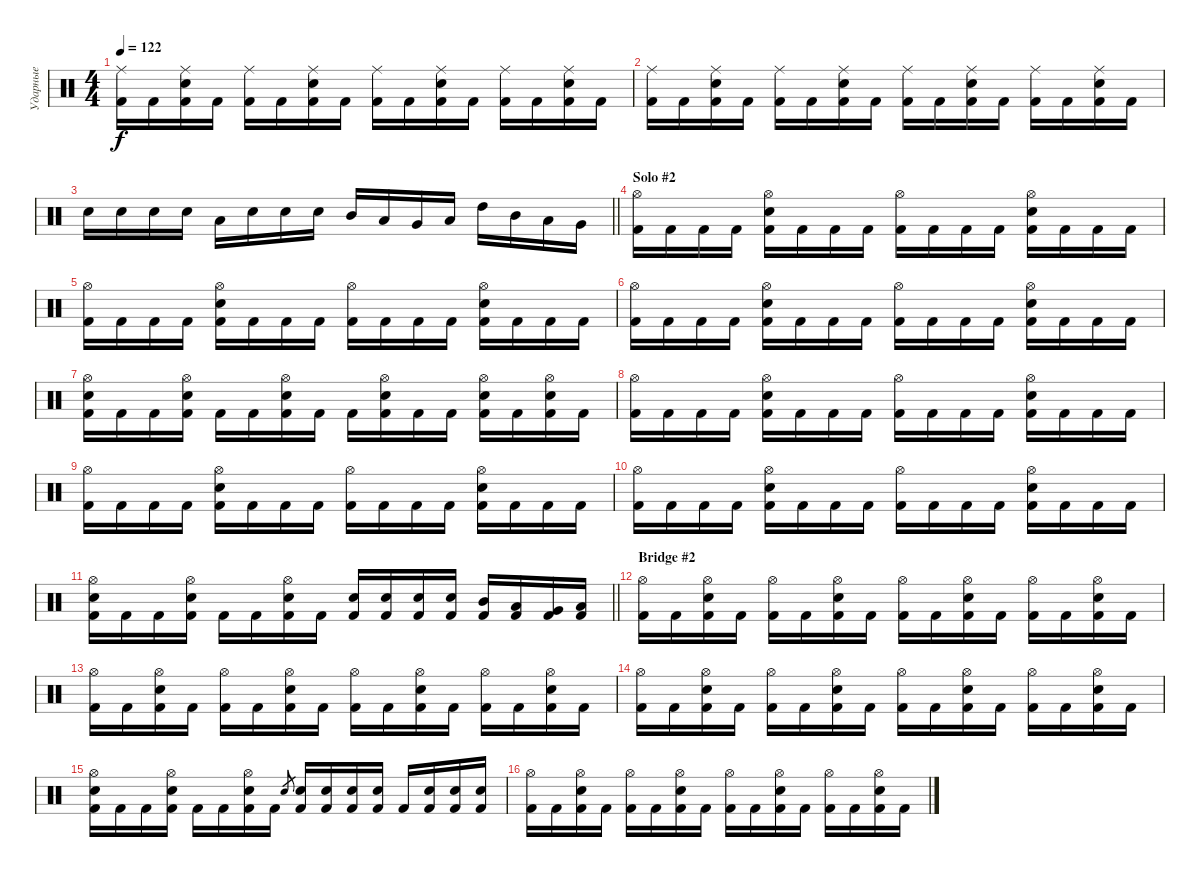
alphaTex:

\track ("Ударные" "Ударные") {instrument percussion}
\staff {score}
\articulation defaults
\ts (4 4)
\tempo 122
\clef neutral
\ks c
("Kick (hit) 2" "Ride (middle)").16{dy f} "Kick (hit) 2".16 ("Kick (hit) 2" "Electric Snare (hit)" "Ride (middle)").16 "Kick (hit) 2".16 ("Kick (hit) 2" "Ride (middle)").16 "Kick (hit) 2".16 ("Kick (hit) 2" "Electric Snare (hit)" "Ride (middle)").16 "Kick (hit) 2".16 ("Kick (hit) 2" "Ride (middle)").16 "Kick (hit) 2".16 ("Kick (hit) 2" "Electric Snare (hit)" "Ride (middle)").16 "Kick (hit) 2".16 ("Kick (hit) 2" "Ride (middle)").16 "Kick (hit) 2".16 ("Kick (hit) 2" "Electric Snare (hit)" "Ride (middle)").16 "Kick (hit) 2".16 |
("Kick (hit) 2" "Ride (middle)").16 "Kick (hit) 2".16 ("Kick (hit) 2" "Electric Snare (hit)" "Ride (middle)").16 "Kick (hit) 2".16 ("Kick (hit) 2" "Ride (middle)").16 "Kick (hit) 2".16 ("Kick (hit) 2" "Electric Snare (hit)" "Ride (middle)").16 "Kick (hit) 2".16 ("Kick (hit) 2" "Ride (middle)").16 "Kick (hit) 2".16 ("Kick (hit) 2" "Electric Snare (hit)" "Ride (middle)").16 "Kick (hit) 2".16 ("Kick (hit) 2" "Ride (middle)").16 "Kick (hit) 2".16 ("Kick (hit) 2" "Electric Snare (hit)" "Ride (middle)").16 "Kick (hit) 2".16 |
\barLineRight lightlight "Electric Snare (hit)".16 "Electric Snare (hit)".16 "Electric Snare (hit)".16 "Electric Snare (hit)".16 "Low Tom (hit)".16 "Electric Snare (hit)".16 "Electric Snare (hit)".16 "Electric Snare (hit)".16 "Mid Tom (hit)".16 "Low Tom (hit)".16 "Very Low Tom (hit)".16 "Low Floor Tom (hit)".16 "High Tom (hit)".16 "Mid Tom (hit)".16 "Low Tom (hit)".16 "Very Low Tom (hit)".16
|
\section ("" "Solo #2")
("Kick (hit) 2" "Hi-Hat (open)").16 "Kick (hit) 2".16 "Kick (hit) 2".16 "Kick (hit) 2".16 ("Kick (hit) 2" "Electric Snare (hit)" "Hi-Hat (open)").16 "Kick (hit) 2".16 "Kick (hit) 2".16 "Kick (hit) 2".16 ("Kick (hit) 2" "Hi-Hat (open)").16 "Kick (hit) 2".16 "Kick (hit) 2".16 "Kick (hit) 2".16 ("Kick (hit) 2" "Electric Snare (hit)" "Hi-Hat (open)").16 "Kick (hit) 2".16 "Kick (hit) 2".16 "Kick (hit) 2".16 |
("Kick (hit) 2" "Hi-Hat (open)").16 "Kick (hit) 2".16 "Kick (hit) 2".16 "Kick (hit) 2".16 ("Kick (hit) 2" "Electric Snare (hit)" "Hi-Hat (open)").16 "Kick (hit) 2".16 "Kick (hit) 2".16 "Kick (hit) 2".16 ("Kick (hit) 2" "Hi-Hat (open)").16 "Kick (hit) 2".16 "Kick (hit) 2".16 "Kick (hit) 2".16 ("Kick (hit) 2" "Electric Snare (hit)" "Hi-Hat (open)").16 "Kick (hit) 2".16 "Kick (hit) 2".16 "Kick (hit) 2".16 |
("Kick (hit) 2" "Hi-Hat (open)").16 "Kick (hit) 2".16 "Kick (hit) 2".16 "Kick (hit) 2".16 ("Kick (hit) 2" "Electric Snare (hit)" "Hi-Hat (open)").16 "Kick (hit) 2".16 "Kick (hit) 2".16 "Kick (hit) 2".16 ("Kick (hit) 2" "Hi-Hat (open)").16 "Kick (hit) 2".16 "Kick (hit) 2".16 "Kick (hit) 2".16 ("Kick (hit) 2" "Electric Snare (hit)" "Hi-Hat (open)").16 "Kick (hit) 2".16 "Kick (hit) 2".16 "Kick (hit) 2".16 |
("Kick (hit) 2" "Electric Snare (hit)" "Hi-Hat (open)").16 "Kick (hit) 2".16 "Kick (hit) 2".16 ("Kick (hit) 2" "Electric Snare (hit)" "Hi-Hat (open)").16 "Kick (hit) 2".16 "Kick (hit) 2".16 ("Kick (hit) 2" "Electric Snare (hit)" "Hi-Hat (open)").16 "Kick (hit) 2".16 "Kick (hit) 2".16 ("Kick (hit) 2" "Electric Snare (hit)" "Hi-Hat (open)").16 "Kick (hit) 2".16 "Kick (hit) 2".16 ("Kick (hit) 2" "Electric Snare (hit)" "Hi-Hat (open)").16 "Kick (hit) 2".16 ("Kick (hit) 2" "Electric Snare (hit)" "Hi-Hat (open)").16 "Kick (hit) 2".16 |
("Kick (hit) 2" "Hi-Hat (open)").16 "Kick (hit) 2".16 "Kick (hit) 2".16 "Kick (hit) 2".16 ("Kick (hit) 2" "Electric Snare (hit)" "Hi-Hat (open)").16 "Kick (hit) 2".16 "Kick (hit) 2".16 "Kick (hit) 2".16 ("Kick (hit) 2" "Hi-Hat (open)").16 "Kick (hit) 2".16 "Kick (hit) 2".16 "Kick (hit) 2".16 ("Kick (hit) 2" "Electric Snare (hit)" "Hi-Hat (open)").16 "Kick (hit) 2".16 "Kick (hit) 2".16 "Kick (hit) 2".16 |
("Kick (hit) 2" "Hi-Hat (open)").16 "Kick (hit) 2".16 "Kick (hit) 2".16 "Kick (hit) 2".16 ("Kick (hit) 2" "Electric Snare (hit)" "Hi-Hat (open)").16 "Kick (hit) 2".16 "Kick (hit) 2".16 "Kick (hit) 2".16 ("Kick (hit) 2" "Hi-Hat (open)").16 "Kick (hit) 2".16 "Kick (hit) 2".16 "Kick (hit) 2".16 ("Kick (hit) 2" "Electric Snare (hit)" "Hi-Hat (open)").16 "Kick (hit) 2".16 "Kick (hit) 2".16 "Kick (hit) 2".16 |
("Kick (hit) 2" "Hi-Hat (open)").16 "Kick (hit) 2".16 "Kick (hit) 2".16 "Kick (hit) 2".16 ("Kick (hit) 2" "Electric Snare (hit)" "Hi-Hat (open)").16 "Kick (hit) 2".16 "Kick (hit) 2".16 "Kick (hit) 2".16 ("Kick (hit) 2" "Hi-Hat (open)").16 "Kick (hit) 2".16 "Kick (hit) 2".16 "Kick (hit) 2".16 ("Kick (hit) 2" "Electric Snare (hit)" "Hi-Hat (open)").16 "Kick (hit) 2".16 "Kick (hit) 2".16 "Kick (hit) 2".16 |
\barLineRight lightlight
("Kick (hit) 2" "Electric Snare (hit)" "Hi-Hat (open)").16 "Kick (hit) 2".16 "Kick (hit) 2".16 ("Kick (hit) 2" "Electric Snare (hit)" "Hi-Hat (open)").16 "Kick (hit) 2".16 "Kick (hit) 2".16 ("Kick (hit) 2" "Electric Snare (hit)" "Hi-Hat (open)").16 "Kick (hit) 2".16 ("Kick (hit) 2" "Electric Snare (hit)").16 ("Kick (hit) 2" "Electric Snare (hit)").16 ("Kick (hit) 2" "Electric Snare (hit)").16 ("Kick (hit) 2" "Electric Snare (hit)").16 ("Kick (hit) 2" "Mid Tom (hit)").16 ("Kick (hit) 2" "Low Tom (hit)").16 ("Kick (hit) 2" "Very Low Tom (hit)").16 ("Kick (hit) 2" "Low Floor Tom (hit)").16 |
\section ("" "Bridge #2")
("Kick (hit) 2" "Hi-Hat (open)").16 "Kick (hit) 2".16 ("Kick (hit) 2" "Electric Snare (hit)" "Hi-Hat (open)").16 "Kick (hit) 2".16 ("Kick (hit) 2" "Hi-Hat (open)").16 "Kick (hit) 2".16 ("Kick (hit) 2" "Electric Snare (hit)" "Hi-Hat (open)").16 "Kick (hit) 2".16 ("Kick (hit) 2" "Hi-Hat (open)").16 "Kick (hit) 2".16 ("Kick (hit) 2" "Electric Snare (hit)" "Hi-Hat (open)").16 "Kick (hit) 2".16 ("Kick (hit) 2" "Hi-Hat (open)").16 "Kick (hit) 2".16 ("Kick (hit) 2" "Electric Snare (hit)" "Hi-Hat (open)").16 "Kick (hit) 2".16 |
("Kick (hit) 2" "Hi-Hat (open)").16 "Kick (hit) 2".16 ("Kick (hit) 2" "Electric Snare (hit)" "Hi-Hat (open)").16 "Kick (hit) 2".16 ("Kick (hit) 2" "Hi-Hat (open)").16 "Kick (hit) 2".16 ("Kick (hit) 2" "Electric Snare (hit)" "Hi-Hat (open)").16 "Kick (hit) 2".16 ("Kick (hit) 2" "Hi-Hat (open)").16 "Kick (hit) 2".16 ("Kick (hit) 2" "Electric Snare (hit)" "Hi-Hat (open)").16 "Kick (hit) 2".16 ("Kick (hit) 2" "Hi-Hat (open)").16 "Kick (hit) 2".16 ("Kick (hit) 2" "Electric Snare (hit)" "Hi-Hat (open)").16 "Kick (hit) 2".16 |
("Kick (hit) 2" "Hi-Hat (open)").16 "Kick (hit) 2".16 ("Kick (hit) 2" "Electric Snare (hit)" "Hi-Hat (open)").16 "Kick (hit) 2".16 ("Kick (hit) 2" "Hi-Hat (open)").16 "Kick (hit) 2".16 ("Kick (hit) 2" "Electric Snare (hit)" "Hi-Hat (open)").16 "Kick (hit) 2".16 ("Kick (hit) 2" "Hi-Hat (open)").16 "Kick (hit) 2".16 ("Kick (hit) 2" "Electric Snare (hit)" "Hi-Hat (open)").16 "Kick (hit) 2".16 ("Kick (hit) 2" "Hi-Hat (open)").16 "Kick (hit) 2".16 ("Kick (hit) 2" "Electric Snare (hit)" "Hi-Hat (open)").16 "Kick (hit) 2".16 |
("Kick (hit) 2" "Electric Snare (hit)" "Hi-Hat (open)").16 "Kick (hit) 2".16 "Kick (hit) 2".16 ("Kick (hit) 2" "Electric Snare (hit)" "Hi-Hat (open)").16 "Kick (hit) 2".16 "Kick (hit) 2".16 ("Kick (hit) 2" "Electric Snare (hit)" "Hi-Hat (open)").16 "Kick (hit) 2".16 "Electric Snare (hit)".8{gr} ("Kick (hit) 2" "Electric Snare (hit)").16 ("Kick (hit) 2" "Electric Snare (hit)").16 ("Kick (hit) 2" "Electric Snare (hit)").16 ("Kick (hit) 2" "Electric Snare (hit)").16 "Kick (hit) 2".16 ("Kick (hit) 2" "Electric Snare (hit)").16 ("Kick (hit) 2" "Electric Snare (hit)").16 ("Kick (hit) 2" "Electric Snare (hit)").16 |
("Kick (hit) 2" "Hi-Hat (open)").16 "Kick (hit) 2".16 ("Kick (hit) 2" "Electric Snare (hit)" "Hi-Hat (open)").16 "Kick (hit) 2".16 ("Kick (hit) 2" "Hi-Hat (open)").16 "Kick (hit) 2".16 ("Kick (hit) 2" "Electric Snare (hit)" "Hi-Hat (open)").16 "Kick (hit) 2".16 ("Kick (hit) 2" "Hi-Hat (open)").16 "Kick (hit) 2".16 ("Kick (hit) 2" "Electric Snare (hit)" "Hi-Hat (open)").16 "Kick (hit) 2".16 ("Kick (hit) 2" "Hi-Hat (open)").16 "Kick (hit) 2".16 ("Kick (hit) 2" "Electric Snare (hit)" "Hi-Hat (open)").16 "Kick (hit) 2".16
